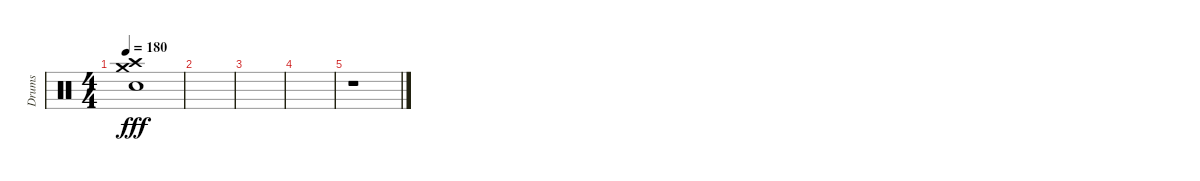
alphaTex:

\track ("Drums" "Drums") {instrument percussion}
\staff {score}
\articulation defaults
\ts (4 4)
\tempo 180
\clef neutral
\ks c
("Crash high (hit)" "Crash medium (hit)" "Electric Snare (hit)").1{dy fff} |
|
|
|
r.1
